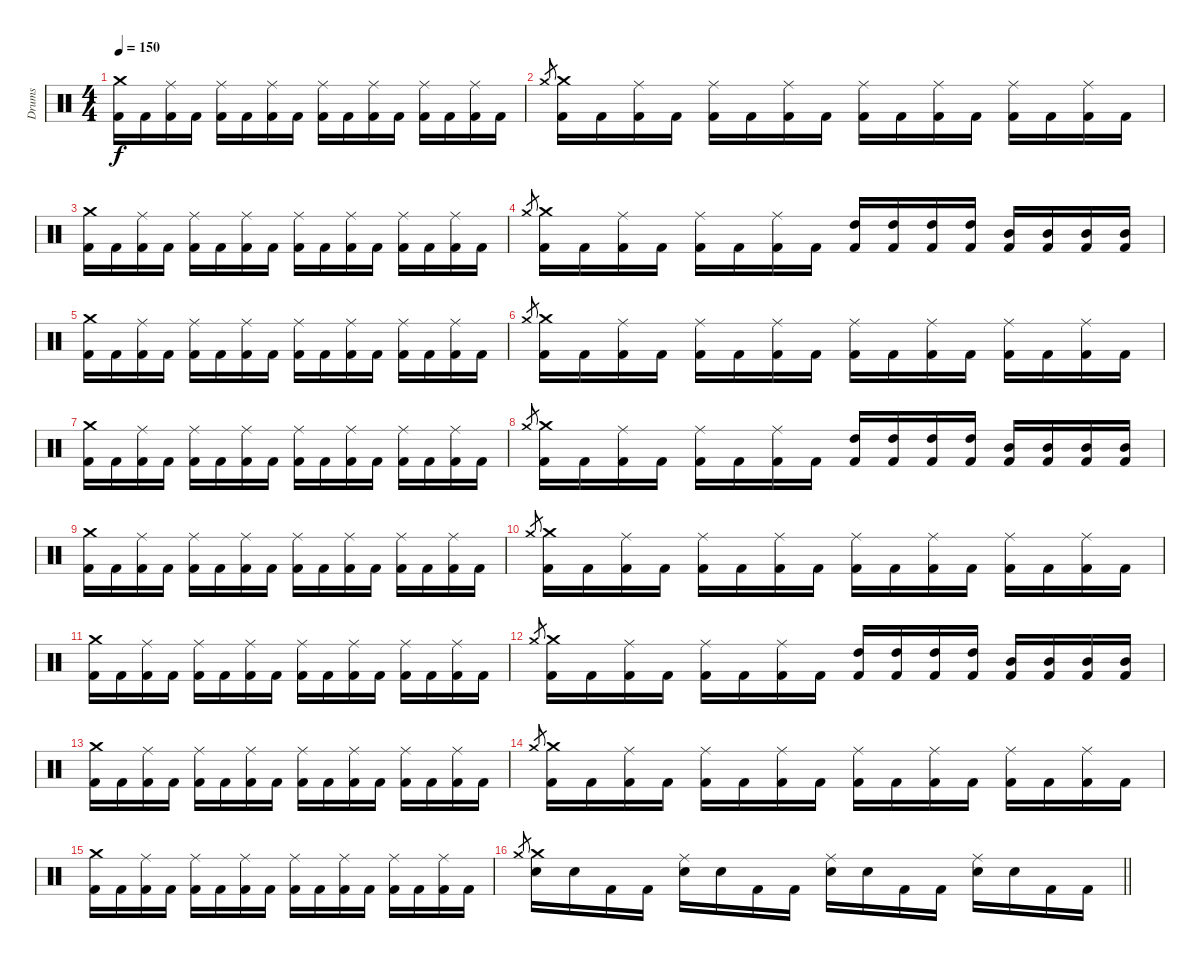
\track ("Drums" "Drums") {instrument percussion}
\staff {score}
\articulation defaults
\ts (4 4)
\tempo 150
\clef neutral
\ks c
("Crash medium (hit)" "Kick (hit) 2").16{dy f} "Kick (hit) 2".16 ("Ride (middle)" "Kick (hit) 2").16 "Kick (hit) 2".16 ("Ride (middle)" "Kick (hit) 2").16 "Kick (hit) 2".16 ("Ride (middle)" "Kick (hit) 2").16 "Kick (hit) 2".16 ("Ride (middle)" "Kick (hit) 2").16 "Kick (hit) 2".16 ("Ride (middle)" "Kick (hit) 2").16 "Kick (hit) 2".16 ("Ride (middle)" "Kick (hit) 2").16 "Kick (hit) 2".16 ("Ride (middle)" "Kick (hit) 2").16 "Kick (hit) 2".16 |
"Crash medium (hit)".8{gr} ("Crash medium (hit)" "Kick (hit) 2").16 "Kick (hit) 2".16 ("Ride (middle)" "Kick (hit) 2").16 "Kick (hit) 2".16 ("Ride (middle)" "Kick (hit) 2").16 "Kick (hit) 2".16 ("Ride (middle)" "Kick (hit) 2").16 "Kick (hit) 2".16 ("Ride (middle)" "Kick (hit) 2").16 "Kick (hit) 2".16 ("Ride (middle)" "Kick (hit) 2").16 "Kick (hit) 2".16 ("Ride (middle)" "Kick (hit) 2").16 "Kick (hit) 2".16 ("Ride (middle)" "Kick (hit) 2").16 "Kick (hit) 2".16 |
("Crash medium (hit)" "Kick (hit) 2").16 "Kick (hit) 2".16 ("Ride (middle)" "Kick (hit) 2").16 "Kick (hit) 2".16 ("Ride (middle)" "Kick (hit) 2").16 "Kick (hit) 2".16 ("Ride (middle)" "Kick (hit) 2").16 "Kick (hit) 2".16 ("Ride (middle)" "Kick (hit) 2").16 "Kick (hit) 2".16 ("Ride (middle)" "Kick (hit) 2").16 "Kick (hit) 2".16 ("Ride (middle)" "Kick (hit) 2").16 "Kick (hit) 2".16 ("Ride (middle)" "Kick (hit) 2").16 "Kick (hit) 2".16 |
"Crash medium (hit)".8{gr} ("Crash medium (hit)" "Kick (hit) 2").16 "Kick (hit) 2".16 ("Ride (middle)" "Kick (hit) 2").16 "Kick (hit) 2".16 ("Ride (middle)" "Kick (hit) 2").16 "Kick (hit) 2".16 ("Ride (middle)" "Kick (hit) 2").16 "Kick (hit) 2".16 ("High Tom (hit)" "Kick (hit) 2").16 ("High Tom (hit)" "Kick (hit) 2").16 ("High Tom (hit)" "Kick (hit) 2").16 ("High Tom (hit)" "Kick (hit) 2").16 ("Mid Tom (hit)" "Kick (hit) 2").16 ("Mid Tom (hit)" "Kick (hit) 2").16 ("Mid Tom (hit)" "Kick (hit) 2").16 ("Mid Tom (hit)" "Kick (hit) 2").16 |
("Crash medium (hit)" "Kick (hit) 2").16 "Kick (hit) 2".16 ("Ride (middle)" "Kick (hit) 2").16 "Kick (hit) 2".16 ("Ride (middle)" "Kick (hit) 2").16 "Kick (hit) 2".16 ("Ride (middle)" "Kick (hit) 2").16 "Kick (hit) 2".16 ("Ride (middle)" "Kick (hit) 2").16 "Kick (hit) 2".16 ("Ride (middle)" "Kick (hit) 2").16 "Kick (hit) 2".16 ("Ride (middle)" "Kick (hit) 2").16 "Kick (hit) 2".16 ("Ride (middle)" "Kick (hit) 2").16 "Kick (hit) 2".16 |
"Crash medium (hit)".8{gr} ("Crash medium (hit)" "Kick (hit) 2").16 "Kick (hit) 2".16 ("Ride (middle)" "Kick (hit) 2").16 "Kick (hit) 2".16 ("Ride (middle)" "Kick (hit) 2").16 "Kick (hit) 2".16 ("Ride (middle)" "Kick (hit) 2").16 "Kick (hit) 2".16 ("Ride (middle)" "Kick (hit) 2").16 "Kick (hit) 2".16 ("Ride (middle)" "Kick (hit) 2").16 "Kick (hit) 2".16 ("Ride (middle)" "Kick (hit) 2").16 "Kick (hit) 2".16 ("Ride (middle)" "Kick (hit) 2").16 "Kick (hit) 2".16 |
("Crash medium (hit)" "Kick (hit) 2").16 "Kick (hit) 2".16 ("Ride (middle)" "Kick (hit) 2").16 "Kick (hit) 2".16 ("Ride (middle)" "Kick (hit) 2").16 "Kick (hit) 2".16 ("Ride (middle)" "Kick (hit) 2").16 "Kick (hit) 2".16 ("Ride (middle)" "Kick (hit) 2").16 "Kick (hit) 2".16 ("Ride (middle)" "Kick (hit) 2").16 "Kick (hit) 2".16 ("Ride (middle)" "Kick (hit) 2").16 "Kick (hit) 2".16 ("Ride (middle)" "Kick (hit) 2").16 "Kick (hit) 2".16 |
"Crash medium (hit)".8{gr} ("Crash medium (hit)" "Kick (hit) 2").16 "Kick (hit) 2".16 ("Ride (middle)" "Kick (hit) 2").16 "Kick (hit) 2".16 ("Ride (middle)" "Kick (hit) 2").16 "Kick (hit) 2".16 ("Ride (middle)" "Kick (hit) 2").16 "Kick (hit) 2".16 ("High Tom (hit)" "Kick (hit) 2").16 ("High Tom (hit)" "Kick (hit) 2").16 ("High Tom (hit)" "Kick (hit) 2").16 ("High Tom (hit)" "Kick (hit) 2").16 ("Mid Tom (hit)" "Kick (hit) 2").16 ("Mid Tom (hit)" "Kick (hit) 2").16 ("Mid Tom (hit)" "Kick (hit) 2").16 ("Mid Tom (hit)" "Kick (hit) 2").16 |
("Crash medium (hit)" "Kick (hit) 2").16 "Kick (hit) 2".16 ("Ride (middle)" "Kick (hit) 2").16 "Kick (hit) 2".16 ("Ride (middle)" "Kick (hit) 2").16 "Kick (hit) 2".16 ("Ride (middle)" "Kick (hit) 2").16 "Kick (hit) 2".16 ("Ride (middle)" "Kick (hit) 2").16 "Kick (hit) 2".16 ("Ride (middle)" "Kick (hit) 2").16 "Kick (hit) 2".16 ("Ride (middle)" "Kick (hit) 2").16 "Kick (hit) 2".16 ("Ride (middle)" "Kick (hit) 2").16 "Kick (hit) 2".16 |
"Crash medium (hit)".8{gr} ("Crash medium (hit)" "Kick (hit) 2").16 "Kick (hit) 2".16 ("Ride (middle)" "Kick (hit) 2").16 "Kick (hit) 2".16 ("Ride (middle)" "Kick (hit) 2").16 "Kick (hit) 2".16 ("Ride (middle)" "Kick (hit) 2").16 "Kick (hit) 2".16 ("Ride (middle)" "Kick (hit) 2").16 "Kick (hit) 2".16 ("Ride (middle)" "Kick (hit) 2").16 "Kick (hit) 2".16 ("Ride (middle)" "Kick (hit) 2").16 "Kick (hit) 2".16 ("Ride (middle)" "Kick (hit) 2").16 "Kick (hit) 2".16 |
("Crash medium (hit)" "Kick (hit) 2").16 "Kick (hit) 2".16 ("Ride (middle)" "Kick (hit) 2").16 "Kick (hit) 2".16 ("Ride (middle)" "Kick (hit) 2").16 "Kick (hit) 2".16 ("Ride (middle)" "Kick (hit) 2").16 "Kick (hit) 2".16 ("Ride (middle)" "Kick (hit) 2").16 "Kick (hit) 2".16 ("Ride (middle)" "Kick (hit) 2").16 "Kick (hit) 2".16 ("Ride (middle)" "Kick (hit) 2").16 "Kick (hit) 2".16 ("Ride (middle)" "Kick (hit) 2").16 "Kick (hit) 2".16 |
"Crash medium (hit)".8{gr} ("Crash medium (hit)" "Kick (hit) 2").16 "Kick (hit) 2".16 ("Ride (middle)" "Kick (hit) 2").16 "Kick (hit) 2".16 ("Ride (middle)" "Kick (hit) 2").16 "Kick (hit) 2".16 ("Ride (middle)" "Kick (hit) 2").16 "Kick (hit) 2".16 ("High Tom (hit)" "Kick (hit) 2").16 ("High Tom (hit)" "Kick (hit) 2").16 ("High Tom (hit)" "Kick (hit) 2").16 ("High Tom (hit)" "Kick (hit) 2").16 ("Mid Tom (hit)" "Kick (hit) 2").16 ("Mid Tom (hit)" "Kick (hit) 2").16 ("Mid Tom (hit)" "Kick (hit) 2").16 ("Mid Tom (hit)" "Kick (hit) 2").16 |
("Crash medium (hit)" "Kick (hit) 2").16 "Kick (hit) 2".16 ("Ride (middle)" "Kick (hit) 2").16 "Kick (hit) 2".16 ("Ride (middle)" "Kick (hit) 2").16 "Kick (hit) 2".16 ("Ride (middle)" "Kick (hit) 2").16 "Kick (hit) 2".16 ("Ride (middle)" "Kick (hit) 2").16 "Kick (hit) 2".16 ("Ride (middle)" "Kick (hit) 2").16 "Kick (hit) 2".16 ("Ride (middle)" "Kick (hit) 2").16 "Kick (hit) 2".16 ("Ride (middle)" "Kick (hit) 2").16 "Kick (hit) 2".16 |
"Crash medium (hit)".8{gr} ("Crash medium (hit)" "Kick (hit) 2").16 "Kick (hit) 2".16 ("Ride (middle)" "Kick (hit) 2").16 "Kick (hit) 2".16 ("Ride (middle)" "Kick (hit) 2").16 "Kick (hit) 2".16 ("Ride (middle)" "Kick (hit) 2").16 "Kick (hit) 2".16 ("Ride (middle)" "Kick (hit) 2").16 "Kick (hit) 2".16 ("Ride (middle)" "Kick (hit) 2").16 "Kick (hit) 2".16 ("Ride (middle)" "Kick (hit) 2").16 "Kick (hit) 2".16 ("Ride (middle)" "Kick (hit) 2").16 "Kick (hit) 2".16 |
("Crash medium (hit)" "Kick (hit) 2").16 "Kick (hit) 2".16 ("Ride (middle)" "Kick (hit) 2").16 "Kick (hit) 2".16 ("Ride (middle)" "Kick (hit) 2").16 "Kick (hit) 2".16 ("Ride (middle)" "Kick (hit) 2").16 "Kick (hit) 2".16 ("Ride (middle)" "Kick (hit) 2").16 "Kick (hit) 2".16 ("Ride (middle)" "Kick (hit) 2").16 "Kick (hit) 2".16 ("Ride (middle)" "Kick (hit) 2").16 "Kick (hit) 2".16 ("Ride (middle)" "Kick (hit) 2").16 "Kick (hit) 2".16 |
\barLineRight lightlight "Crash medium (hit)".8{gr}
("Crash medium (hit)" "Electric Snare (hit)").16 "Electric Snare (hit)".16 "Kick (hit) 2".16 "Kick (hit) 2".16 ("Ride (middle)" "Electric Snare (hit)").16 "Electric Snare (hit)".16 "Kick (hit) 2".16 "Kick (hit) 2".16 ("Ride (middle)" "Electric Snare (hit)").16 "Electric Snare (hit)".16 "Kick (hit) 2".16 "Kick (hit) 2".16 ("Ride (middle)" "Electric Snare (hit)").16 "Electric Snare (hit)".16 "Kick (hit) 2".16 "Kick (hit) 2".16
